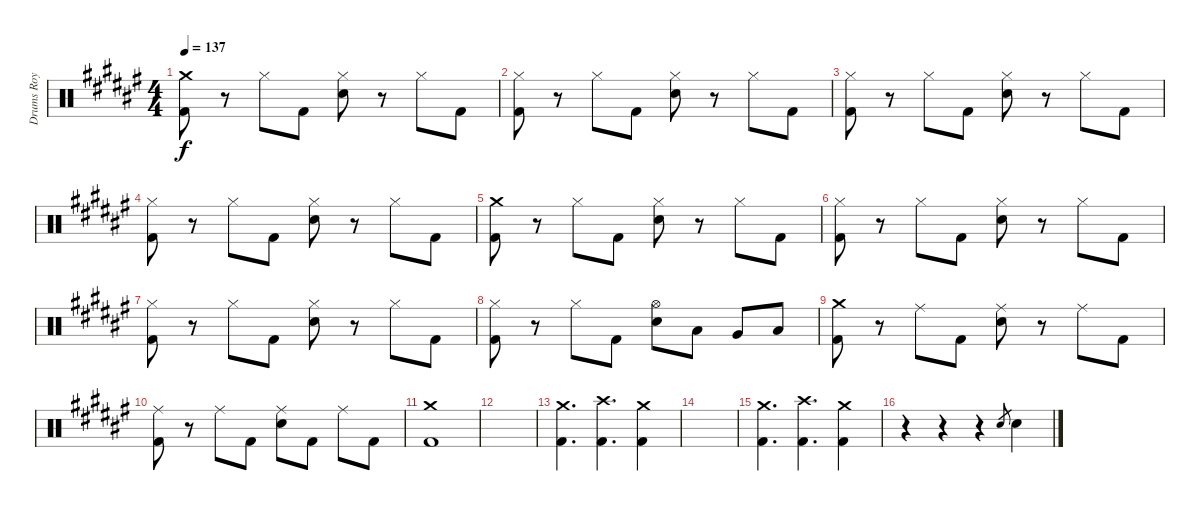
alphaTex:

\track ("Drums Roy mayorga" "Drums Roy ") {instrument percussion}
\staff {score}
\articulation defaults
\ts (4 4)
\tempo 137
\clef neutral
\ks d#minor
("Crash medium (hit)" "Kick (hit) 2").8{dy f} r.8 "Hi-Hat (closed)".8 "Kick (hit) 2".8 ("Hi-Hat (closed)" "Electric Snare (hit)").8 r.8 "Hi-Hat (closed)".8 "Kick (hit) 2".8 |
("Hi-Hat (closed)" "Kick (hit) 2").8 r.8 "Hi-Hat (closed)".8 "Kick (hit) 2".8 ("Hi-Hat (closed)" "Electric Snare (hit)").8 r.8 "Hi-Hat (closed)".8 "Kick (hit) 2".8 |
("Hi-Hat (closed)" "Kick (hit) 2").8 r.8 "Hi-Hat (closed)".8 "Kick (hit) 2".8 ("Hi-Hat (closed)" "Electric Snare (hit)").8 r.8 "Hi-Hat (closed)".8 "Kick (hit) 2".8 |
("Hi-Hat (closed)" "Kick (hit) 2").8 r.8 "Hi-Hat (closed)".8 "Kick (hit) 2".8 ("Hi-Hat (closed)" "Electric Snare (hit)").8 r.8 "Hi-Hat (closed)".8 "Kick (hit) 2".8 |
("Crash medium (hit)" "Kick (hit) 2").8 r.8 "Hi-Hat (closed)".8 "Kick (hit) 2".8 ("Hi-Hat (closed)" "Electric Snare (hit)").8 r.8 "Hi-Hat (closed)".8 "Kick (hit) 2".8 |
("Hi-Hat (closed)" "Kick (hit) 2").8 r.8 "Hi-Hat (closed)".8 "Kick (hit) 2".8 ("Hi-Hat (closed)" "Electric Snare (hit)").8 r.8 "Hi-Hat (closed)".8 "Kick (hit) 2".8 |
("Hi-Hat (closed)" "Kick (hit) 2").8 r.8 "Hi-Hat (closed)".8 "Kick (hit) 2".8 ("Hi-Hat (closed)" "Electric Snare (hit)").8 r.8 "Hi-Hat (closed)".8 "Kick (hit) 2".8 |
("Hi-Hat (closed)" "Kick (hit) 2").8 r.8 "Hi-Hat (closed)".8 "Kick (hit) 2".8 ("Hi-Hat (open)" "Electric Snare (hit)").8 "Low Tom (hit)".8 "Very Low Tom (hit)".8 "Low Floor Tom (hit)".8 |
("Crash medium (hit)" "Kick (hit) 2").8 r.8 "Ride (middle)".8 "Kick (hit) 2".8 ("Ride (middle)" "Electric Snare (hit)").8 r.8 "Ride (middle)".8 "Kick (hit) 2".8 |
("Ride (middle)" "Kick (hit) 2").8 r.8 "Ride (middle)".8 "Kick (hit) 2".8 ("Ride (middle)" "Electric Snare (hit)").8 "Kick (hit) 2".8 "Ride (middle)".8 "Kick (hit) 2".8 |
("Crash medium (hit)" "Kick (hit) 2").1 |
|
("Crash medium (hit)" "Kick (hit) 2").4{d} ("Crash high (hit)" "Kick (hit) 2").4{d} ("Crash medium (hit)" "Kick (hit) 2").4 |
|
("Crash medium (hit)" "Kick (hit) 2").4{d} ("Crash high (hit)" "Kick (hit) 2").4{d} ("Crash medium (hit)" "Kick (hit) 2").4 |
r.4 r.4 r.4 "Electric Snare (hit)".8{gr} "Electric Snare (hit)".4
